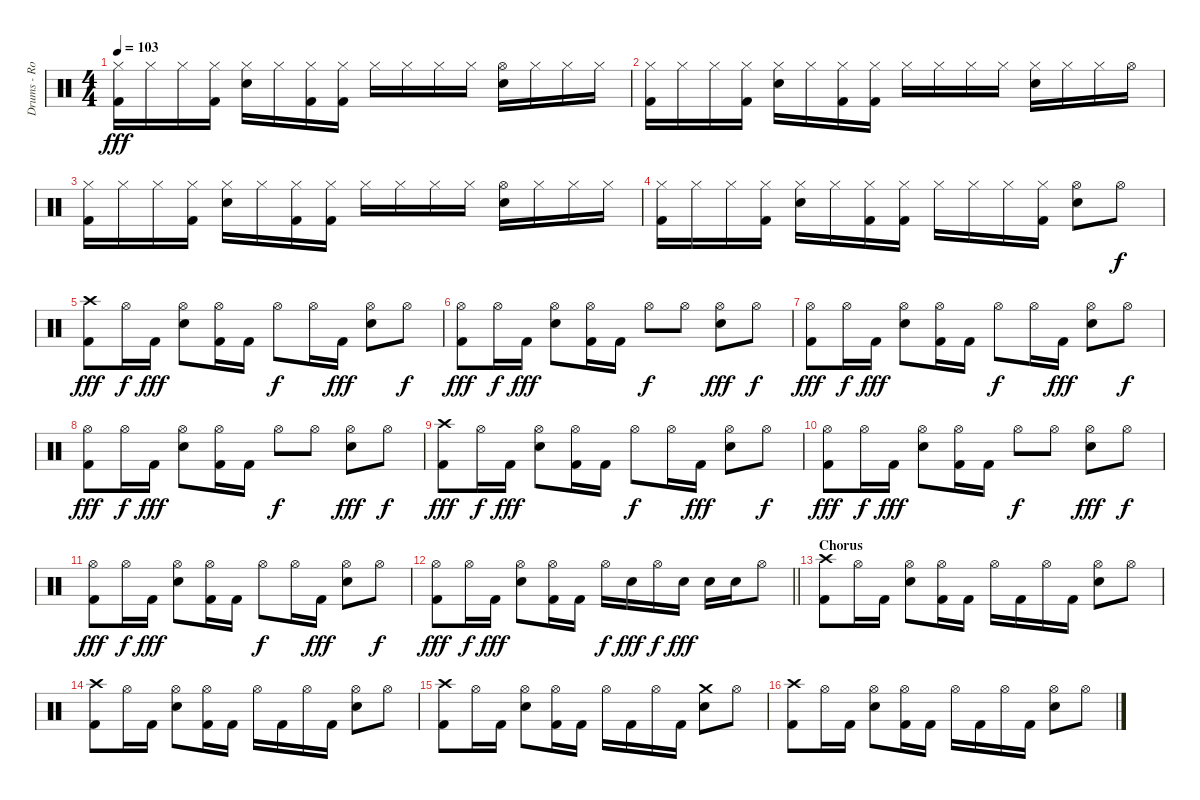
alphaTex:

\track ("Drums - Rob Bourdon" "Drums - Ro") {instrument percussion}
\staff {score}
\articulation defaults
\ts (4 4)
\tempo 103
\clef neutral
\ks c
("Hi-Hat (closed)" "Kick (hit) 2").16{dy fff} "Hi-Hat (closed)".16 "Hi-Hat (closed)".16 ("Hi-Hat (closed)" "Kick (hit) 2").16 ("Hi-Hat (closed)" "Snare (hit) 2").16 "Hi-Hat (closed)".16 ("Hi-Hat (closed)" "Kick (hit) 2").16 ("Hi-Hat (closed)" "Kick (hit) 2").16 "Hi-Hat (closed)".16 "Hi-Hat (closed)".16 "Hi-Hat (closed)".16 "Hi-Hat (closed)".16 ("Hi-Hat (open)" "Snare (hit) 2").16 "Hi-Hat (closed)".16 "Hi-Hat (closed)".16 "Hi-Hat (closed)".16 |
("Hi-Hat (closed)" "Kick (hit) 2").16 "Hi-Hat (closed)".16 "Hi-Hat (closed)".16 ("Hi-Hat (closed)" "Kick (hit) 2").16 ("Hi-Hat (closed)" "Snare (hit) 2").16 "Hi-Hat (closed)".16 ("Hi-Hat (closed)" "Kick (hit) 2").16 ("Hi-Hat (closed)" "Kick (hit) 2").16 "Hi-Hat (closed)".16 "Hi-Hat (closed)".16 "Hi-Hat (closed)".16 "Hi-Hat (closed)".16 ("Hi-Hat (closed)" "Snare (hit) 2").16 "Hi-Hat (closed)".16 "Hi-Hat (closed)".16 "Hi-Hat (open)".16 |
("Hi-Hat (closed)" "Kick (hit) 2").16 "Hi-Hat (closed)".16 "Hi-Hat (closed)".16 ("Hi-Hat (closed)" "Kick (hit) 2").16 ("Hi-Hat (closed)" "Snare (hit) 2").16 "Hi-Hat (closed)".16 ("Hi-Hat (closed)" "Kick (hit) 2").16 ("Hi-Hat (closed)" "Kick (hit) 2").16 "Hi-Hat (closed)".16 "Hi-Hat (closed)".16 "Hi-Hat (closed)".16 "Hi-Hat (closed)".16 ("Hi-Hat (open)" "Snare (hit) 2").16 "Hi-Hat (closed)".16 "Hi-Hat (closed)".16 "Hi-Hat (closed)".16 |
("Hi-Hat (closed)" "Kick (hit) 2").16 "Hi-Hat (closed)".16 "Hi-Hat (closed)".16 ("Hi-Hat (closed)" "Kick (hit) 2").16 ("Hi-Hat (closed)" "Snare (hit) 2").16 "Hi-Hat (closed)".16 ("Hi-Hat (closed)" "Kick (hit) 2").16 ("Hi-Hat (closed)" "Kick (hit) 2").16 "Hi-Hat (closed)".16 "Hi-Hat (closed)".16 "Hi-Hat (closed)".16 ("Hi-Hat (closed)" "Kick (hit) 2").16 ("Hi-Hat (open)" "Snare (hit) 2").8 "Hi-Hat (open)".8{dy f} |
("Crash high (hit)" "Kick (hit) 2").8{dy fff} "Hi-Hat (open)".16{dy f} "Kick (hit) 2".16{dy fff} ("Hi-Hat (open)" "Snare (hit) 2").8 ("Hi-Hat (open)" "Kick (hit) 2").16 "Kick (hit) 2".16 "Hi-Hat (open)".8{dy f} "Hi-Hat (open)".16 "Kick (hit) 2".16{dy fff} ("Hi-Hat (open)" "Snare (hit) 2").8 "Hi-Hat (open)".8{dy f} |
("Hi-Hat (open)" "Kick (hit) 2").8{dy fff} "Hi-Hat (open)".16{dy f} "Kick (hit) 2".16{dy fff} ("Hi-Hat (open)" "Snare (hit) 2").8 ("Hi-Hat (open)" "Kick (hit) 2").16 "Kick (hit) 2".16 "Hi-Hat (open)".8{dy f} "Hi-Hat (open)".8 ("Hi-Hat (open)" "Snare (hit) 2").8{dy fff} "Hi-Hat (open)".8{dy f} |
("Hi-Hat (open)" "Kick (hit) 2").8{dy fff} "Hi-Hat (open)".16{dy f} "Kick (hit) 2".16{dy fff} ("Hi-Hat (open)" "Snare (hit) 2").8 ("Hi-Hat (open)" "Kick (hit) 2").16 "Kick (hit) 2".16 "Hi-Hat (open)".8{dy f} "Hi-Hat (open)".16 "Kick (hit) 2".16{dy fff} ("Hi-Hat (open)" "Snare (hit) 2").8 "Hi-Hat (open)".8{dy f} |
("Hi-Hat (open)" "Kick (hit) 2").8{dy fff} "Hi-Hat (open)".16{dy f} "Kick (hit) 2".16{dy fff} ("Hi-Hat (open)" "Snare (hit) 2").8 ("Hi-Hat (open)" "Kick (hit) 2").16 "Kick (hit) 2".16 "Hi-Hat (open)".8{dy f} "Hi-Hat (open)".8 ("Hi-Hat (open)" "Snare (hit) 2").8{dy fff} "Hi-Hat (open)".8{dy f} |
("Crash high (hit)" "Kick (hit) 2").8{dy fff} "Hi-Hat (open)".16{dy f} "Kick (hit) 2".16{dy fff} ("Hi-Hat (open)" "Snare (hit) 2").8 ("Hi-Hat (open)" "Kick (hit) 2").16 "Kick (hit) 2".16 "Hi-Hat (open)".8{dy f} "Hi-Hat (open)".16 "Kick (hit) 2".16{dy fff} ("Hi-Hat (open)" "Snare (hit) 2").8 "Hi-Hat (open)".8{dy f} |
("Hi-Hat (open)" "Kick (hit) 2").8{dy fff} "Hi-Hat (open)".16{dy f} "Kick (hit) 2".16{dy fff} ("Hi-Hat (open)" "Snare (hit) 2").8 ("Hi-Hat (open)" "Kick (hit) 2").16 "Kick (hit) 2".16 "Hi-Hat (open)".8{dy f} "Hi-Hat (open)".8 ("Hi-Hat (open)" "Snare (hit) 2").8{dy fff} "Hi-Hat (open)".8{dy f} |
("Hi-Hat (open)" "Kick (hit) 2").8{dy fff} "Hi-Hat (open)".16{dy f} "Kick (hit) 2".16{dy fff} ("Hi-Hat (open)" "Snare (hit) 2").8 ("Hi-Hat (open)" "Kick (hit) 2").16 "Kick (hit) 2".16 "Hi-Hat (open)".8{dy f} "Hi-Hat (open)".16 "Kick (hit) 2".16{dy fff} ("Hi-Hat (open)" "Snare (hit) 2").8 "Hi-Hat (open)".8{dy f} |
\barLineRight lightlight
("Hi-Hat (open)" "Kick (hit) 2").8{dy fff} "Hi-Hat (open)".16{dy f} "Kick (hit) 2".16{dy fff} ("Hi-Hat (open)" "Snare (hit) 2").8 ("Hi-Hat (open)" "Kick (hit) 2").16 "Kick (hit) 2".16 "Hi-Hat (open)".16{dy f} "Snare (hit) 2".16{dy fff} "Hi-Hat (open)".16{dy f} "Snare (hit) 2".16{dy fff} "Snare (hit) 2".16 "Snare (hit) 2".16 "Hi-Hat (open)".8 |
\section ("" "Chorus")
("Crash high (hit)" "Kick (hit) 2").8 "Hi-Hat (open)".16 "Kick (hit) 2".16 ("Hi-Hat (open)" "Snare (hit) 2").8 ("Hi-Hat (open)" "Kick (hit) 2").16 "Kick (hit) 2".16 "Hi-Hat (open)".16 "Kick (hit) 2".16 "Hi-Hat (open)".16 "Kick (hit) 2".16 ("Hi-Hat (open)" "Snare (hit) 2").8 "Hi-Hat (open)".8 |
("Crash high (hit)" "Kick (hit) 2").8 "Hi-Hat (open)".16 "Kick (hit) 2".16 ("Hi-Hat (open)" "Snare (hit) 2").8 ("Hi-Hat (open)" "Kick (hit) 2").16 "Kick (hit) 2".16 "Hi-Hat (open)".16 "Kick (hit) 2".16 "Hi-Hat (open)".16 "Kick (hit) 2".16 ("Hi-Hat (open)" "Snare (hit) 2").8 "Hi-Hat (open)".8 |
("Crash high (hit)" "Kick (hit) 2").8 "Hi-Hat (open)".16 "Kick (hit) 2".16 ("Hi-Hat (open)" "Snare (hit) 2").8 ("Hi-Hat (open)" "Kick (hit) 2").16 "Kick (hit) 2".16 "Hi-Hat (open)".16 "Kick (hit) 2".16 "Hi-Hat (open)".16 "Kick (hit) 2".16 ("Crash medium (hit)" "Snare (hit) 2").8 "Hi-Hat (open)".8 |
("Crash high (hit)" "Kick (hit) 2").8 "Hi-Hat (open)".16 "Kick (hit) 2".16 ("Hi-Hat (open)" "Snare (hit) 2").8 ("Hi-Hat (open)" "Kick (hit) 2").16 "Kick (hit) 2".16 "Hi-Hat (open)".16 "Kick (hit) 2".16 "Hi-Hat (open)".16 "Kick (hit) 2".16 ("Hi-Hat (open)" "Snare (hit) 2").8 "Hi-Hat (open)".8
